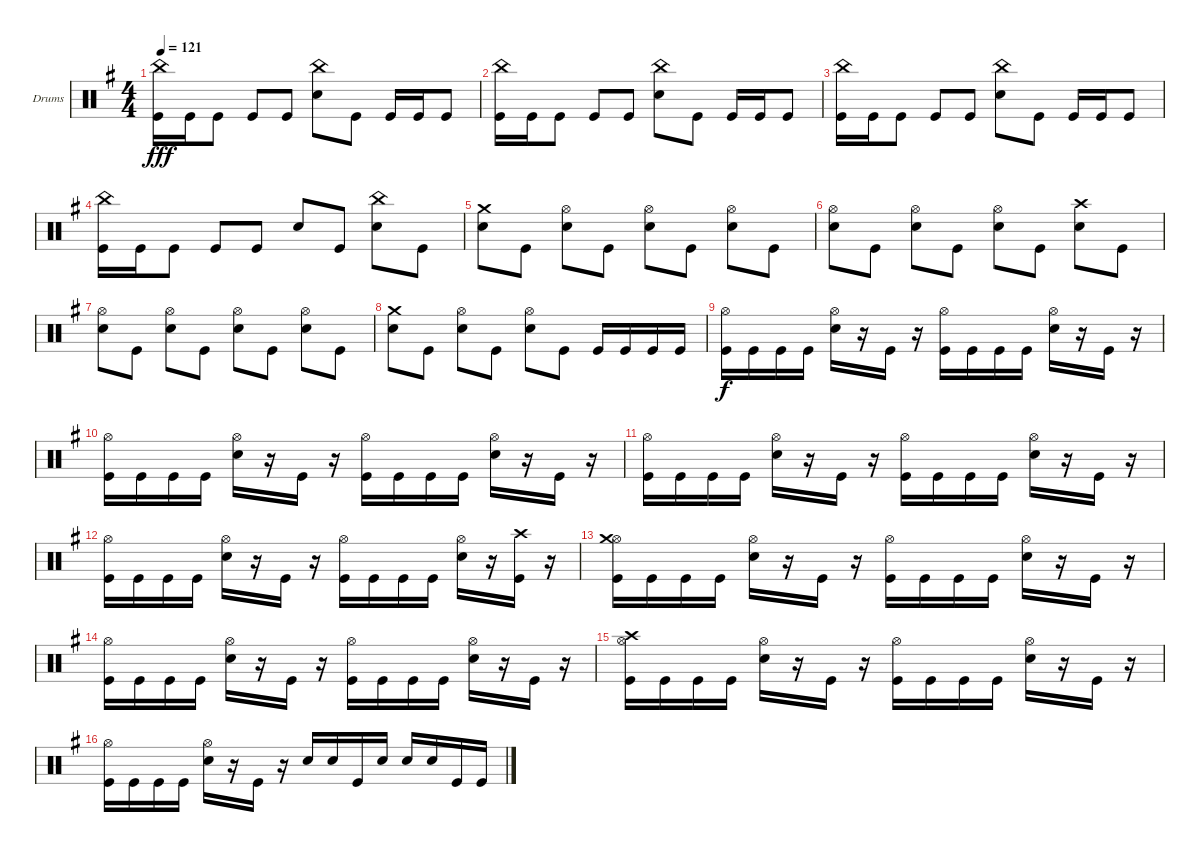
\bracketExtendMode groupsimilarinstruments
\firstSystemTrackNameOrientation horizontal
\otherSystemsTrackNameOrientation horizontal
\track ("Drumkit" "Drums") {instrument percussion}
\staff {score}
\articulation defaults
\ts (4 4)
\tempo 121
\clef neutral
\scale
0.333333
\ks g
("China (hit)" "Kick (hit)").16{dy fff} "Kick (hit)".16 "Kick (hit)".8 "Kick (hit)".8 "Kick (hit)".8 ("China (hit)" "Snare (hit) 2").8 "Kick (hit)".8 "Kick (hit)".16 "Kick (hit)".16 "Kick (hit)".8 |
\scale
0.333333 ("China (hit)" "Kick (hit)").16 "Kick (hit)".16 "Kick (hit)".8 "Kick (hit)".8 "Kick (hit)".8 ("China (hit)" "Snare (hit) 2").8 "Kick (hit)".8 "Kick (hit)".16 "Kick (hit)".16 "Kick (hit)".8 |
\scale
0.333333 ("China (hit)" "Kick (hit)").16 "Kick (hit)".16 "Kick (hit)".8 "Kick (hit)".8 "Kick (hit)".8 ("China (hit)" "Snare (hit) 2").8 "Kick (hit)".8 "Kick (hit)".16 "Kick (hit)".16 "Kick (hit)".8 |
\scale
0.333333 ("China (hit)" "Kick (hit)").16 "Kick (hit)".16 "Kick (hit)".8 "Kick (hit)".8 "Kick (hit)".8 "Snare (hit) 2".8 "Kick (hit)".8 ("China (hit)" "Snare (hit) 2").8 "Kick (hit)".8 |
\scale
0.333333 ("Snare (hit) 2" "Crash medium (hit)").8 "Kick (hit)".8 ("Snare (hit) 2" "Hi-Hat (open)").8 "Kick (hit)".8 ("Snare (hit) 2" "Hi-Hat (open)").8 "Kick (hit)".8 ("Snare (hit) 2" "Hi-Hat (open)").8 "Kick (hit)".8 |
\scale
0.333333 ("Snare (hit) 2" "Hi-Hat (open)").8 "Kick (hit)".8 ("Snare (hit) 2" "Hi-Hat (open)").8 "Kick (hit)".8 ("Snare (hit) 2" "Hi-Hat (open)").8 "Kick (hit)".8 ("Snare (hit) 2" "Crash high (hit)").8 "Kick (hit)".8 |
\scale
0.333333 ("Snare (hit) 2" "Hi-Hat (open)").8 "Kick (hit)".8 ("Snare (hit) 2" "Hi-Hat (open)").8 "Kick (hit)".8 ("Snare (hit) 2" "Hi-Hat (open)").8 "Kick (hit)".8 ("Snare (hit) 2" "Hi-Hat (open)").8 "Kick (hit)".8 |
\scale
0.333333 ("Snare (hit) 2" "Crash medium (hit)").8 "Kick (hit)".8 ("Snare (hit) 2" "Hi-Hat (open)").8 "Kick (hit)".8 ("Snare (hit) 2" "Hi-Hat (open)").8 "Kick (hit)".8 "Kick (hit)".16 "Kick (hit)".16 "Kick (hit)".16 "Kick (hit)".16 |
\scale
0.333333 ("Hi-Hat (open)" "Kick (hit)").16{dy f} "Kick (hit)".16 "Kick (hit)".16 "Kick (hit)".16 ("Hi-Hat (open)" "Snare (hit) 2").16 r.16 "Kick (hit)".16 r.16 ("Hi-Hat (open)" "Kick (hit)").16 "Kick (hit)".16 "Kick (hit)".16 "Kick (hit)".16 ("Hi-Hat (open)" "Snare (hit) 2").16 r.16 "Kick (hit)".16 r.16 |
\scale
0.333333 ("Hi-Hat (open)" "Kick (hit)").16 "Kick (hit)".16 "Kick (hit)".16 "Kick (hit)".16 ("Hi-Hat (open)" "Snare (hit) 2").16 r.16 "Kick (hit)".16 r.16 ("Hi-Hat (open)" "Kick (hit)").16 "Kick (hit)".16 "Kick (hit)".16 "Kick (hit)".16 ("Hi-Hat (open)" "Snare (hit) 2").16 r.16 "Kick (hit)".16 r.16 |
\scale
0.333333 ("Hi-Hat (open)" "Kick (hit)").16 "Kick (hit)".16 "Kick (hit)".16 "Kick (hit)".16 ("Hi-Hat (open)" "Snare (hit) 2").16 r.16 "Kick (hit)".16 r.16 ("Hi-Hat (open)" "Kick (hit)").16 "Kick (hit)".16 "Kick (hit)".16 "Kick (hit)".16 ("Hi-Hat (open)" "Snare (hit) 2").16 r.16 "Kick (hit)".16 r.16 |
\scale
0.333333 ("Hi-Hat (open)" "Kick (hit)").16 "Kick (hit)".16 "Kick (hit)".16 "Kick (hit)".16 ("Hi-Hat (open)" "Snare (hit) 2").16 r.16 "Kick (hit)".16 r.16 ("Hi-Hat (open)" "Kick (hit)").16 "Kick (hit)".16 "Kick (hit)".16 "Kick (hit)".16 ("Hi-Hat (open)" "Snare (hit) 2").16 r.16 ("Kick (hit)" "Crash high (hit)").16 r.16 |
\scale
0.333333 ("Hi-Hat (open)" "Kick (hit)" "Crash medium (hit)").16 "Kick (hit)".16 "Kick (hit)".16 "Kick (hit)".16 ("Hi-Hat (open)" "Snare (hit) 2").16 r.16 "Kick (hit)".16 r.16 ("Hi-Hat (open)" "Kick (hit)").16 "Kick (hit)".16 "Kick (hit)".16 "Kick (hit)".16 ("Hi-Hat (open)" "Snare (hit) 2").16 r.16 "Kick (hit)".16 r.16 |
\scale
0.333333 ("Hi-Hat (open)" "Kick (hit)").16 "Kick (hit)".16 "Kick (hit)".16 "Kick (hit)".16 ("Hi-Hat (open)" "Snare (hit) 2").16 r.16 "Kick (hit)".16 r.16 ("Hi-Hat (open)" "Kick (hit)").16 "Kick (hit)".16 "Kick (hit)".16 "Kick (hit)".16 ("Hi-Hat (open)" "Snare (hit) 2").16 r.16 "Kick (hit)".16 r.16 |
\scale
0.333333 ("Hi-Hat (open)" "Kick (hit)" "Crash high (hit)").16 "Kick (hit)".16 "Kick (hit)".16 "Kick (hit)".16 ("Hi-Hat (open)" "Snare (hit) 2").16 r.16 "Kick (hit)".16 r.16 ("Hi-Hat (open)" "Kick (hit)").16 "Kick (hit)".16 "Kick (hit)".16 "Kick (hit)".16 ("Hi-Hat (open)" "Snare (hit) 2").16 r.16 "Kick (hit)".16 r.16 |
\scale
0.333333 ("Hi-Hat (open)" "Kick (hit)").16 "Kick (hit)".16 "Kick (hit)".16 "Kick (hit)".16 ("Hi-Hat (open)" "Snare (hit) 2").16 r.16 "Kick (hit)".16 r.16 "Snare (hit) 2".16 "Snare (hit) 2".16 "Kick (hit)".16 "Snare (hit) 2".16 "Snare (hit) 2".16 "Snare (hit) 2".16 "Kick (hit)".16 "Kick (hit)".16
